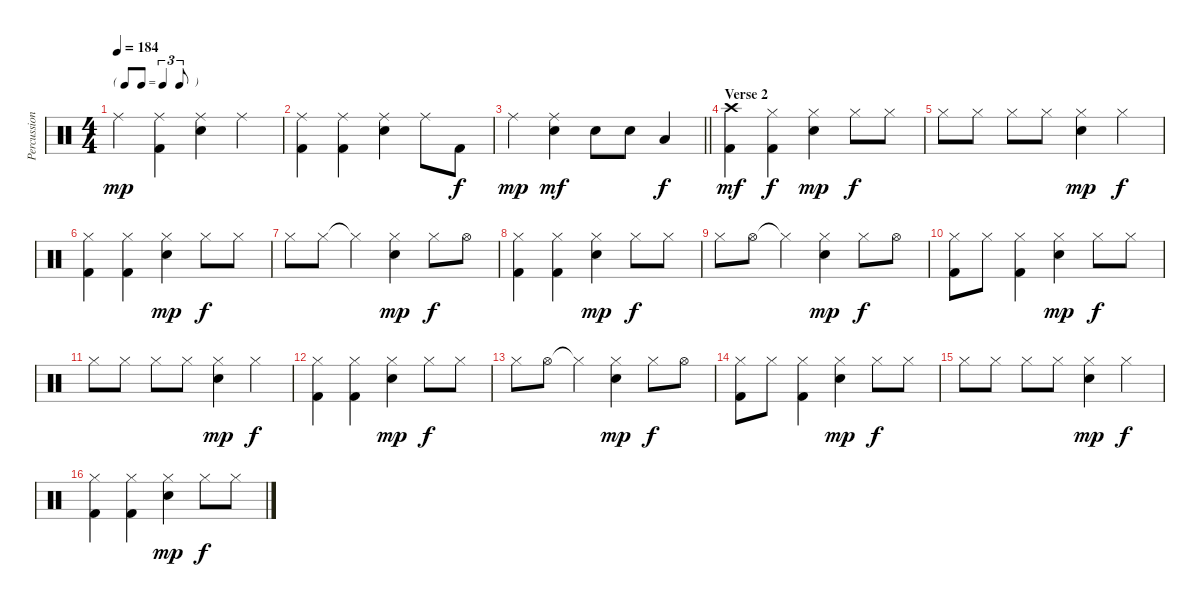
\track ("Percussion" "Percussion") {instrument percussion}
\staff {score}
\articulation defaults
\ts (4 4)
\tf triplet8th
\tempo 184
\clef neutral
\ks c "Ride (middle)".4{dy mp}
("Ride (middle)" "Kick (hit) 2").4 ("Ride (middle)" "Electric Snare (hit)").4 "Ride (middle)".4 |
("Ride (middle)" "Kick (hit) 2").4 ("Ride (middle)" "Kick (hit) 2").4 ("Ride (middle)" "Electric Snare (hit)").4 "Ride (middle)".8 "Kick (hit) 2".8{dy f} |
\barLineRight lightlight "Ride (middle)".4{dy mp}
("Ride (middle)" "Electric Snare (hit)").4{dy mf} "Electric Snare (hit)".8 "Electric Snare (hit)".8 "Low Tom (hit)".4{dy f} |
\section ("" "Verse 2")
("Crash high (hit)" "Kick (hit) 2").4{dy mf} ("Hi-Hat (closed)" "Kick (hit) 2").4{dy f} ("Hi-Hat (closed)" "Electric Snare (hit)").4{dy mp} "Hi-Hat (closed)".8{dy f} "Hi-Hat (closed)".8 |
"Hi-Hat (closed)".8 "Hi-Hat (closed)".8 "Hi-Hat (closed)".8 "Hi-Hat (closed)".8 ("Hi-Hat (closed)" "Electric Snare (hit)").4{dy mp} "Hi-Hat (closed)".4{dy f} |
("Hi-Hat (closed)" "Kick (hit) 2").4 ("Hi-Hat (closed)" "Kick (hit) 2").4 ("Hi-Hat (closed)" "Electric Snare (hit)").4{dy mp} "Hi-Hat (closed)".8{dy f} "Hi-Hat (closed)".8 |
"Hi-Hat (closed)".8 "Hi-Hat (closed)".8 "Hi-Hat (closed)"{t}.4 ("Hi-Hat (closed)" "Electric Snare (hit)").4{dy mp} "Hi-Hat (closed)".8{dy f} "Hi-Hat (open)".8 |
("Hi-Hat (closed)" "Kick (hit) 2").4 ("Hi-Hat (closed)" "Kick (hit) 2").4 ("Hi-Hat (closed)" "Electric Snare (hit)").4{dy mp} "Hi-Hat (closed)".8{dy f} "Hi-Hat (closed)".8 |
"Hi-Hat (closed)".8 "Hi-Hat (open)".8 "Hi-Hat (closed)"{t}.4 ("Hi-Hat (closed)" "Electric Snare (hit)").4{dy mp} "Hi-Hat (closed)".8{dy f} "Hi-Hat (open)".8 |
("Hi-Hat (closed)" "Kick (hit) 2").8 "Hi-Hat (closed)".8 ("Hi-Hat (closed)" "Kick (hit) 2").4 ("Hi-Hat (closed)" "Electric Snare (hit)").4{dy mp} "Hi-Hat (closed)".8{dy f} "Hi-Hat (closed)".8 |
"Hi-Hat (closed)".8 "Hi-Hat (closed)".8 "Hi-Hat (closed)".8 "Hi-Hat (closed)".8 ("Hi-Hat (closed)" "Electric Snare (hit)").4{dy mp} "Hi-Hat (closed)".4{dy f} |
("Hi-Hat (closed)" "Kick (hit) 2").4 ("Hi-Hat (closed)" "Kick (hit) 2").4 ("Hi-Hat (closed)" "Electric Snare (hit)").4{dy mp} "Hi-Hat (closed)".8{dy f} "Hi-Hat (closed)".8 |
"Hi-Hat (closed)".8 "Hi-Hat (open)".8 "Hi-Hat (closed)"{t}.4 ("Hi-Hat (closed)" "Electric Snare (hit)").4{dy mp} "Hi-Hat (closed)".8{dy f} "Hi-Hat (open)".8 |
("Hi-Hat (closed)" "Kick (hit) 2").8 "Hi-Hat (closed)".8 ("Hi-Hat (closed)" "Kick (hit) 2").4 ("Hi-Hat (closed)" "Electric Snare (hit)").4{dy mp} "Hi-Hat (closed)".8{dy f} "Hi-Hat (closed)".8 |
"Hi-Hat (closed)".8 "Hi-Hat (closed)".8 "Hi-Hat (closed)".8 "Hi-Hat (closed)".8 ("Hi-Hat (closed)" "Electric Snare (hit)").4{dy mp} "Hi-Hat (closed)".4{dy f} |
("Hi-Hat (closed)" "Kick (hit) 2").4 ("Hi-Hat (closed)" "Kick (hit) 2").4 ("Hi-Hat (closed)" "Electric Snare (hit)").4{dy mp} "Hi-Hat (closed)".8{dy f} "Hi-Hat (closed)".8
